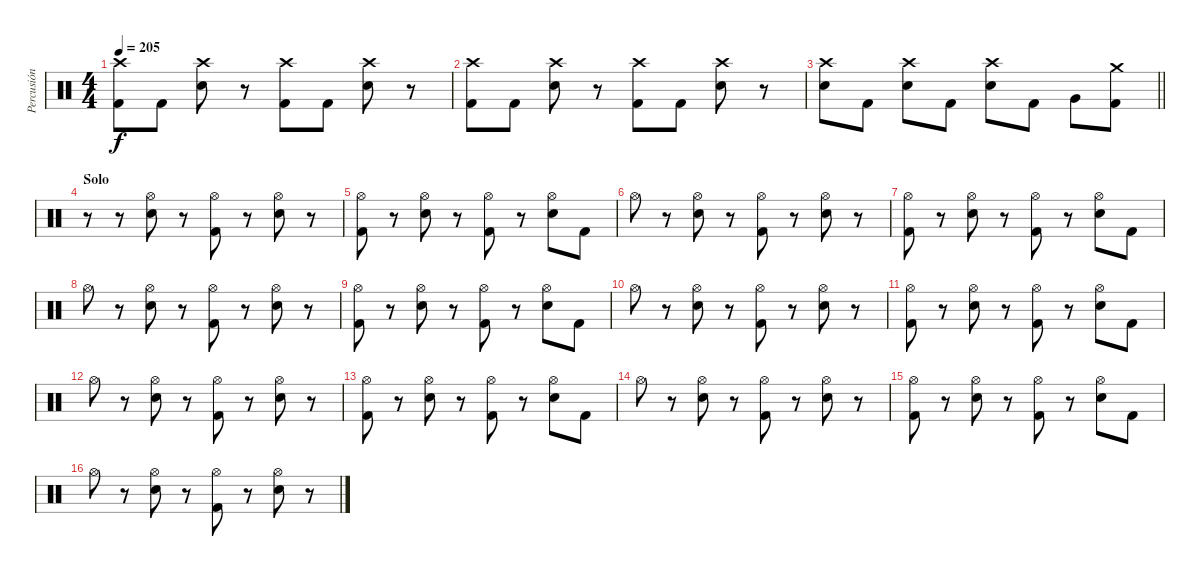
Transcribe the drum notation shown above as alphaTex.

\track ("Percusión" "Percusión") {instrument percussion}
\staff {score}
\articulation defaults
\ts (4 4)
\tempo 205
\clef neutral
\ks c
("Crash high (hit)" "Kick (hit) 2").8{dy f} "Kick (hit) 2".8 ("Crash high (hit)" "Electric Snare (hit)").8 r.8 ("Crash high (hit)" "Kick (hit) 2").8 "Kick (hit) 2".8 ("Crash high (hit)" "Electric Snare (hit)").8 r.8 |
("Crash high (hit)" "Kick (hit) 2").8 "Kick (hit) 2".8 ("Crash high (hit)" "Electric Snare (hit)").8 r.8 ("Crash high (hit)" "Kick (hit) 2").8 "Kick (hit) 2".8 ("Crash high (hit)" "Electric Snare (hit)").8 r.8 |
\barLineRight lightlight
("Crash high (hit)" "Electric Snare (hit)").8 "Kick (hit) 2".8 ("Crash high (hit)" "Electric Snare (hit)").8 "Kick (hit) 2".8 ("Crash high (hit)" "Electric Snare (hit)").8 "Kick (hit) 2".8 "Very Low Tom (hit)".8 ("Crash medium (hit)" "Kick (hit) 2").8 |
\section ("" "Solo")
r.8 r.8 ("Hi-Hat (open)" "Electric Snare (hit)").8 r.8 ("Hi-Hat (open)" "Kick (hit) 2").8 r.8 ("Hi-Hat (open)" "Electric Snare (hit)").8 r.8 |
("Hi-Hat (open)" "Kick (hit) 2").8 r.8 ("Hi-Hat (open)" "Electric Snare (hit)").8 r.8 ("Hi-Hat (open)" "Kick (hit) 2").8 r.8 ("Hi-Hat (open)" "Electric Snare (hit)").8 "Kick (hit) 2".8 |
"Hi-Hat (open)".8 r.8 ("Hi-Hat (open)" "Electric Snare (hit)").8 r.8 ("Hi-Hat (open)" "Kick (hit) 2").8 r.8 ("Hi-Hat (open)" "Electric Snare (hit)").8 r.8 |
("Hi-Hat (open)" "Kick (hit) 2").8 r.8 ("Hi-Hat (open)" "Electric Snare (hit)").8 r.8 ("Hi-Hat (open)" "Kick (hit) 2").8 r.8 ("Hi-Hat (open)" "Electric Snare (hit)").8 "Kick (hit) 2".8 |
"Hi-Hat (open)".8 r.8 ("Hi-Hat (open)" "Electric Snare (hit)").8 r.8 ("Hi-Hat (open)" "Kick (hit) 2").8 r.8 ("Hi-Hat (open)" "Electric Snare (hit)").8 r.8 |
("Hi-Hat (open)" "Kick (hit) 2").8 r.8 ("Hi-Hat (open)" "Electric Snare (hit)").8 r.8 ("Hi-Hat (open)" "Kick (hit) 2").8 r.8 ("Hi-Hat (open)" "Electric Snare (hit)").8 "Kick (hit) 2".8 |
"Hi-Hat (open)".8 r.8 ("Hi-Hat (open)" "Electric Snare (hit)").8 r.8 ("Hi-Hat (open)" "Kick (hit) 2").8 r.8 ("Hi-Hat (open)" "Electric Snare (hit)").8 r.8 |
("Hi-Hat (open)" "Kick (hit) 2").8 r.8 ("Hi-Hat (open)" "Electric Snare (hit)").8 r.8 ("Hi-Hat (open)" "Kick (hit) 2").8 r.8 ("Hi-Hat (open)" "Electric Snare (hit)").8 "Kick (hit) 2".8 |
"Hi-Hat (open)".8 r.8 ("Hi-Hat (open)" "Electric Snare (hit)").8 r.8 ("Hi-Hat (open)" "Kick (hit) 2").8 r.8 ("Hi-Hat (open)" "Electric Snare (hit)").8 r.8 |
("Hi-Hat (open)" "Kick (hit) 2").8 r.8 ("Hi-Hat (open)" "Electric Snare (hit)").8 r.8 ("Hi-Hat (open)" "Kick (hit) 2").8 r.8 ("Hi-Hat (open)" "Electric Snare (hit)").8 "Kick (hit) 2".8 |
"Hi-Hat (open)".8 r.8 ("Hi-Hat (open)" "Electric Snare (hit)").8 r.8 ("Hi-Hat (open)" "Kick (hit) 2").8 r.8 ("Hi-Hat (open)" "Electric Snare (hit)").8 r.8 |
("Hi-Hat (open)" "Kick (hit) 2").8 r.8 ("Hi-Hat (open)" "Electric Snare (hit)").8 r.8 ("Hi-Hat (open)" "Kick (hit) 2").8 r.8 ("Hi-Hat (open)" "Electric Snare (hit)").8 "Kick (hit) 2".8 |
"Hi-Hat (open)".8 r.8 ("Hi-Hat (open)" "Electric Snare (hit)").8 r.8 ("Hi-Hat (open)" "Kick (hit) 2").8 r.8 ("Hi-Hat (open)" "Electric Snare (hit)").8 r.8
